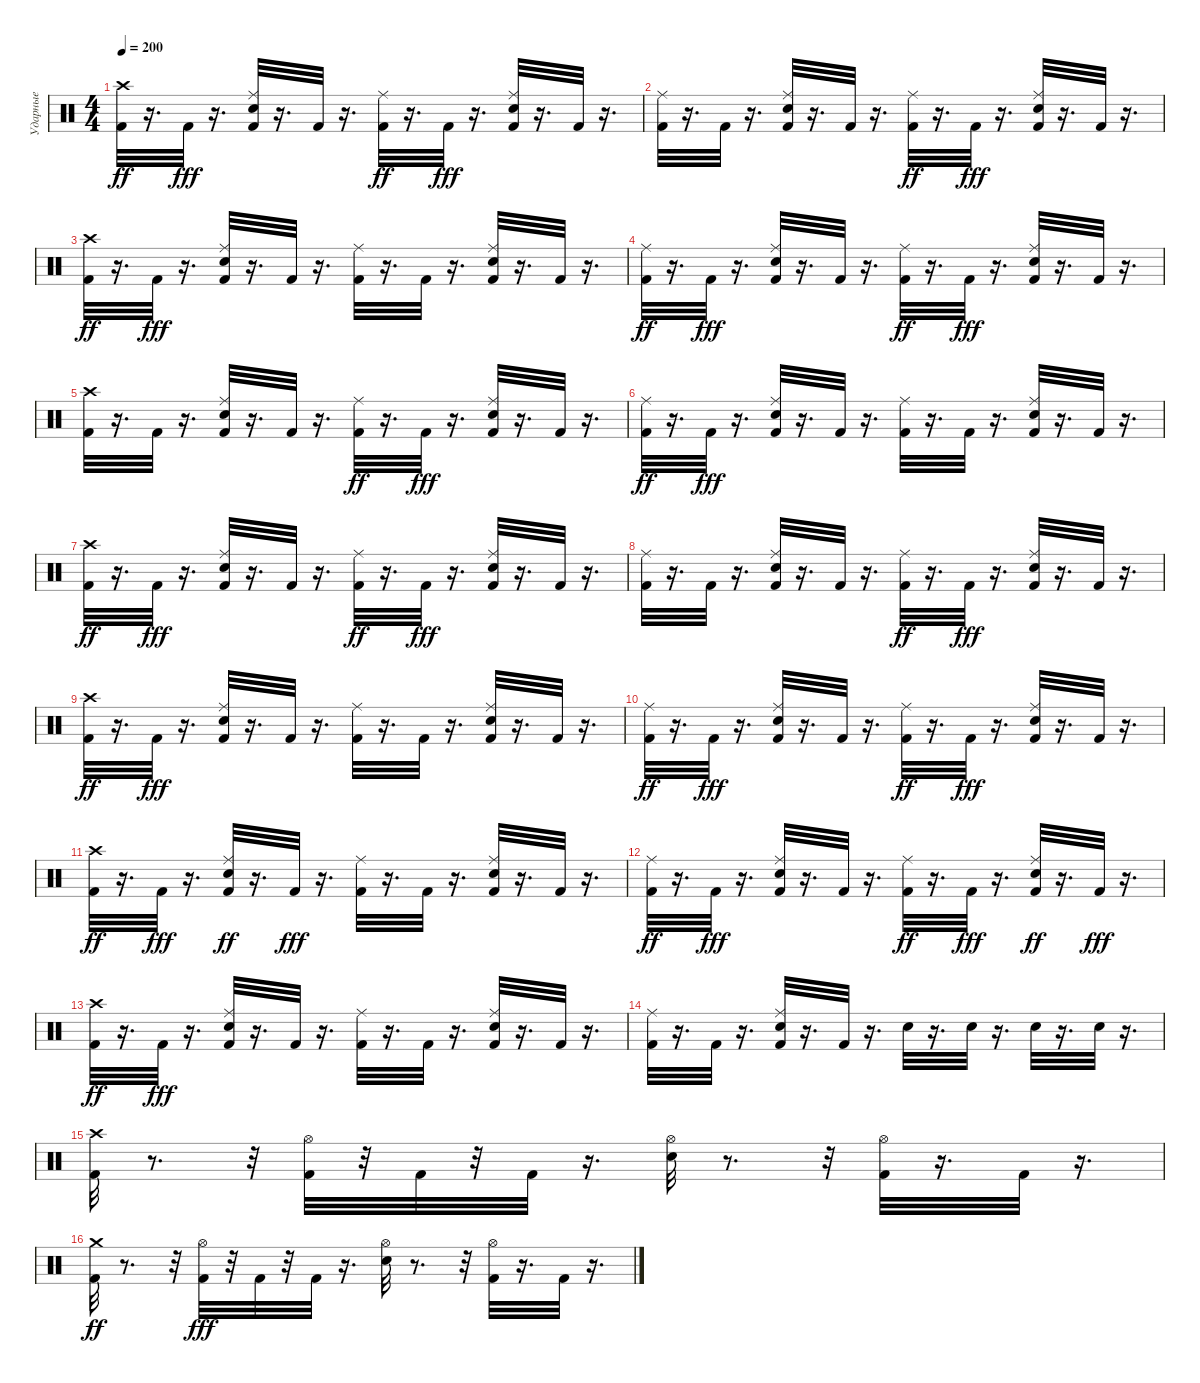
\track ("Ударные" "Ударные") {instrument percussion}
\staff {score}
\articulation defaults
\ts (4 4)
\tempo 200
\clef neutral
\ks c
("Kick (hit) 2" "Crash high (hit)").32{dy ff} r.16{d} "Kick (hit) 2".32{dy fff} r.16{d} ("Ride (middle)" "Kick (hit) 2" "Snare (hit) 2").32 r.16{d} "Kick (hit) 2".32 r.16{d} ("Kick (hit) 2" "Ride (middle)").32{dy ff} r.16{d} "Kick (hit) 2".32{dy fff} r.16{d} ("Kick (hit) 2" "Ride (middle)" "Snare (hit) 2").32 r.16{d} "Kick (hit) 2".32 r.16{d} |
("Ride (middle)" "Kick (hit) 2").32 r.16{d} "Kick (hit) 2".32 r.16{d} ("Ride (middle)" "Snare (hit) 2" "Kick (hit) 2").32 r.16{d} "Kick (hit) 2".32 r.16{d} ("Kick (hit) 2" "Ride (middle)").32{dy ff} r.16{d} "Kick (hit) 2".32{dy fff} r.16{d} ("Ride (middle)" "Snare (hit) 2" "Kick (hit) 2").32 r.16{d} "Kick (hit) 2".32 r.16{d} |
("Kick (hit) 2" "Crash high (hit)").32{dy ff} r.16{d} "Kick (hit) 2".32{dy fff} r.16{d} ("Ride (middle)" "Snare (hit) 2" "Kick (hit) 2").32 r.16{d} "Kick (hit) 2".32 r.16{d} ("Ride (middle)" "Kick (hit) 2").32 r.16{d} "Kick (hit) 2".32 r.16{d} ("Ride (middle)" "Snare (hit) 2" "Kick (hit) 2").32 r.16{d} "Kick (hit) 2".32 r.16{d} |
("Kick (hit) 2" "Ride (middle)").32{dy ff} r.16{d} "Kick (hit) 2".32{dy fff} r.16{d} ("Snare (hit) 2" "Ride (middle)" "Kick (hit) 2").32 r.16{d} "Kick (hit) 2".32 r.16{d} ("Kick (hit) 2" "Ride (middle)").32{dy ff} r.16{d} "Kick (hit) 2".32{dy fff} r.16{d} ("Ride (middle)" "Kick (hit) 2" "Snare (hit) 2").32 r.16{d} "Kick (hit) 2".32 r.16{d} |
("Crash high (hit)" "Kick (hit) 2").32 r.16{d} "Kick (hit) 2".32 r.16{d} ("Kick (hit) 2" "Ride (middle)" "Snare (hit) 2").32 r.16{d} "Kick (hit) 2".32 r.16{d} ("Kick (hit) 2" "Ride (middle)").32{dy ff} r.16{d} "Kick (hit) 2".32{dy fff} r.16{d} ("Ride (middle)" "Kick (hit) 2" "Snare (hit) 2").32 r.16{d} "Kick (hit) 2".32 r.16{d} |
("Kick (hit) 2" "Ride (middle)").32{dy ff} r.16{d} "Kick (hit) 2".32{dy fff} r.16{d} ("Ride (middle)" "Kick (hit) 2" "Snare (hit) 2").32 r.16{d} "Kick (hit) 2".32 r.16{d} ("Ride (middle)" "Kick (hit) 2").32 r.16{d} "Kick (hit) 2".32 r.16{d} ("Snare (hit) 2" "Ride (middle)" "Kick (hit) 2").32 r.16{d} "Kick (hit) 2".32 r.16{d} |
("Kick (hit) 2" "Crash high (hit)").32{dy ff} r.16{d} "Kick (hit) 2".32{dy fff} r.16{d} ("Ride (middle)" "Kick (hit) 2" "Snare (hit) 2").32 r.16{d} "Kick (hit) 2".32 r.16{d} ("Kick (hit) 2" "Ride (middle)").32{dy ff} r.16{d} "Kick (hit) 2".32{dy fff} r.16{d} ("Ride (middle)" "Snare (hit) 2" "Kick (hit) 2").32 r.16{d} "Kick (hit) 2".32 r.16{d} |
("Ride (middle)" "Kick (hit) 2").32 r.16{d} "Kick (hit) 2".32 r.16{d} ("Snare (hit) 2" "Ride (middle)" "Kick (hit) 2").32 r.16{d} "Kick (hit) 2".32 r.16{d} ("Kick (hit) 2" "Ride (middle)").32{dy ff} r.16{d} "Kick (hit) 2".32{dy fff} r.16{d} ("Ride (middle)" "Snare (hit) 2" "Kick (hit) 2").32 r.16{d} "Kick (hit) 2".32 r.16{d} |
("Kick (hit) 2" "Crash high (hit)").32{dy ff} r.16{d} "Kick (hit) 2".32{dy fff} r.16{d} ("Ride (middle)" "Snare (hit) 2" "Kick (hit) 2").32 r.16{d} "Kick (hit) 2".32 r.16{d} ("Ride (middle)" "Kick (hit) 2").32 r.16{d} "Kick (hit) 2".32 r.16{d} ("Kick (hit) 2" "Ride (middle)" "Snare (hit) 2").32 r.16{d} "Kick (hit) 2".32 r.16{d} |
("Kick (hit) 2" "Ride (middle)").32{dy ff} r.16{d} "Kick (hit) 2".32{dy fff} r.16{d} ("Ride (middle)" "Snare (hit) 2" "Kick (hit) 2").32 r.16{d} "Kick (hit) 2".32 r.16{d} ("Kick (hit) 2" "Ride (middle)").32{dy ff} r.16{d} "Kick (hit) 2".32{dy fff} r.16{d} ("Ride (middle)" "Kick (hit) 2" "Snare (hit) 2").32 r.16{d} "Kick (hit) 2".32 r.16{d} |
("Kick (hit) 2" "Crash high (hit)").32{dy ff} r.16{d} "Kick (hit) 2".32{dy fff} r.16{d} ("Kick (hit) 2" "Snare (hit) 2" "Ride (middle)").32{dy ff} r.16{d} "Kick (hit) 2".32{dy fff} r.16{d} ("Ride (middle)" "Kick (hit) 2").32 r.16{d} "Kick (hit) 2".32 r.16{d} ("Kick (hit) 2" "Ride (middle)" "Snare (hit) 2").32 r.16{d} "Kick (hit) 2".32 r.16{d} |
("Kick (hit) 2" "Ride (middle)").32{dy ff} r.16{d} "Kick (hit) 2".32{dy fff} r.16{d} ("Ride (middle)" "Snare (hit) 2" "Kick (hit) 2").32 r.16{d} "Kick (hit) 2".32 r.16{d} ("Kick (hit) 2" "Ride (middle)").32{dy ff} r.16{d} "Kick (hit) 2".32{dy fff} r.16{d} ("Snare (hit) 2" "Kick (hit) 2" "Ride (middle)").32{dy ff} r.16{d} "Kick (hit) 2".32{dy fff} r.16{d} |
("Kick (hit) 2" "Crash high (hit)").32{dy ff} r.16{d} "Kick (hit) 2".32{dy fff} r.16{d} ("Ride (middle)" "Kick (hit) 2" "Snare (hit) 2").32 r.16{d} "Kick (hit) 2".32 r.16{d} ("Ride (middle)" "Kick (hit) 2").32 r.16{d} "Kick (hit) 2".32 r.16{d} ("Ride (middle)" "Snare (hit) 2" "Kick (hit) 2").32 r.16{d} "Kick (hit) 2".32 r.16{d} |
("Ride (middle)" "Kick (hit) 2").32 r.16{d} "Kick (hit) 2".32 r.16{d} ("Ride (middle)" "Snare (hit) 2" "Kick (hit) 2").32 r.16{d} "Kick (hit) 2".32 r.16{d} "Snare (hit) 2".32 r.16{d} "Snare (hit) 2".32 r.16{d} "Snare (hit) 2".32 r.16{d} "Snare (hit) 2".32 r.16{d} |
("Crash high (hit)" "Kick (hit) 2").32 r.8{d} r.32 ("Kick (hit) 2" "Hi-Hat (open)").32 r.32 "Kick (hit) 2".32 r.32 "Kick (hit) 2".32 r.16{d} ("Hi-Hat (open)" "Snare (hit) 2").32 r.8{d} r.32 ("Hi-Hat (open)" "Kick (hit) 2").32 r.16{d} "Kick (hit) 2".32 r.16{d} |
("Kick (hit) 2" "Crash medium (hit)").32{dy ff} r.8{d} r.32 ("Hi-Hat (open)" "Kick (hit) 2").32{dy fff} r.32 "Kick (hit) 2".32 r.32 "Kick (hit) 2".32 r.16{d} ("Hi-Hat (open)" "Snare (hit) 2").32 r.8{d} r.32 ("Kick (hit) 2" "Hi-Hat (open)").32 r.16{d} "Kick (hit) 2".32 r.16{d}
